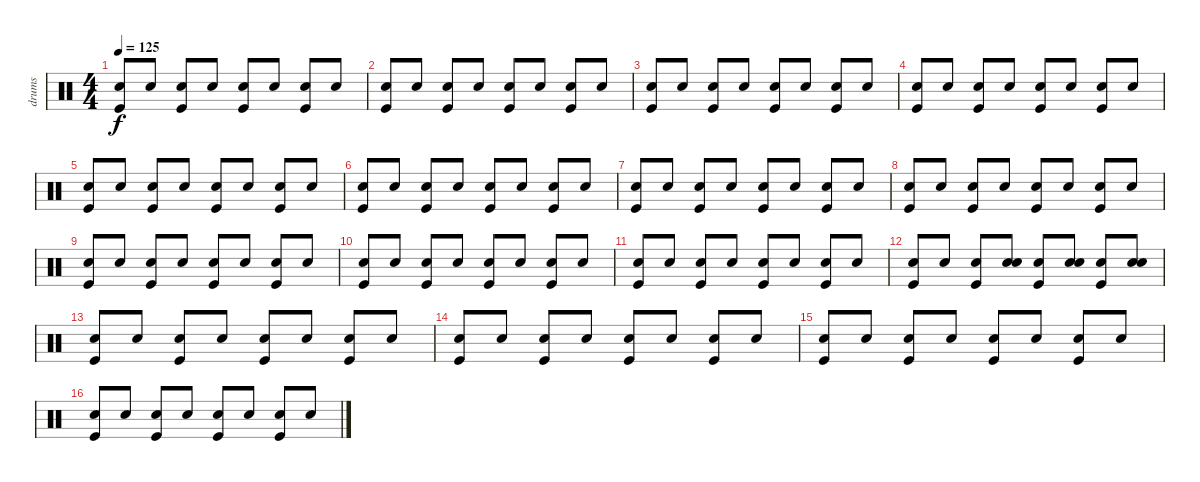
\track ("drums" "drums") {instrument percussion}
\staff {score}
\articulation defaults
\ts (4 4)
\tempo 125
\clef neutral
\ks c
("Kick (hit)" "Snare (hit) 2").8{dy f} "Snare (hit) 2".8 ("Hand Clap (hit)" "Kick (hit)").8 "Snare (hit) 2".8 ("Kick (hit)" "Snare (hit) 2").8 "Snare (hit) 2".8 ("Kick (hit)" "Hand Clap (hit)").8 "Snare (hit) 2".8 |
("Snare (hit) 2" "Kick (hit)").8 "Snare (hit) 2".8 ("Hand Clap (hit)" "Kick (hit)").8 "Snare (hit) 2".8 ("Snare (hit) 2" "Kick (hit)").8 "Snare (hit) 2".8 ("Hand Clap (hit)" "Kick (hit)").8 "Snare (hit) 2".8 |
("Kick (hit)" "Snare (hit) 2").8 "Snare (hit) 2".8 ("Kick (hit)" "Hand Clap (hit)").8 "Snare (hit) 2".8 ("Kick (hit)" "Snare (hit) 2").8 "Snare (hit) 2".8 ("Kick (hit)" "Hand Clap (hit)").8 "Snare (hit) 2".8 |
("Kick (hit)" "Snare (hit) 2").8 "Snare (hit) 2".8 ("Kick (hit)" "Hand Clap (hit)").8 "Snare (hit) 2".8 ("Kick (hit)" "Snare (hit) 2").8 "Snare (hit) 2".8 ("Kick (hit)" "Hand Clap (hit)").8 "Snare (hit) 2".8 |
("Kick (hit)" "Snare (hit) 2").8 "Snare (hit) 2".8 ("Kick (hit)" "Hand Clap (hit)").8 "Snare (hit) 2".8 ("Kick (hit)" "Snare (hit) 2").8 "Snare (hit) 2".8 ("Kick (hit)" "Hand Clap (hit)").8 "Snare (hit) 2".8 |
("Kick (hit)" "Snare (hit) 2").8 "Snare (hit) 2".8 ("Kick (hit)" "Hand Clap (hit)").8 "Snare (hit) 2".8 ("Kick (hit)" "Snare (hit) 2").8 "Snare (hit) 2".8 ("Kick (hit)" "Hand Clap (hit)").8 "Snare (hit) 2".8 |
("Kick (hit)" "Snare (hit) 2").8 "Snare (hit) 2".8 ("Kick (hit)" "Hand Clap (hit)").8 "Snare (hit) 2".8 ("Kick (hit)" "Snare (hit) 2").8 "Snare (hit) 2".8 ("Kick (hit)" "Hand Clap (hit)").8 "Snare (hit) 2".8 |
("Kick (hit)" "Snare (hit) 2").8 "Snare (hit) 2".8 ("Kick (hit)" "Hand Clap (hit)").8 "Snare (hit) 2".8 ("Kick (hit)" "Snare (hit) 2").8 "Snare (hit) 2".8 ("Kick (hit)" "Hand Clap (hit)").8 "Snare (hit) 2".8 |
("Kick (hit)" "Snare (hit) 2").8 "Snare (hit) 2".8 ("Kick (hit)" "Hand Clap (hit)").8 "Snare (hit) 2".8 ("Kick (hit)" "Snare (hit) 2").8 "Snare (hit) 2".8 ("Kick (hit)" "Hand Clap (hit)").8 "Snare (hit) 2".8 |
("Kick (hit)" "Snare (hit) 2").8 "Snare (hit) 2".8 ("Kick (hit)" "Hand Clap (hit)").8 "Snare (hit) 2".8 ("Kick (hit)" "Snare (hit) 2").8 "Snare (hit) 2".8 ("Kick (hit)" "Hand Clap (hit)").8 "Snare (hit) 2".8 |
("Kick (hit)" "Snare (hit) 2").8 "Snare (hit) 2".8 ("Kick (hit)" "Hand Clap (hit)").8 "Snare (hit) 2".8 ("Kick (hit)" "Snare (hit) 2").8 "Snare (hit) 2".8 ("Kick (hit)" "Hand Clap (hit)").8 "Snare (hit) 2".8 |
("Kick (hit)" "Snare (hit) 2").8 "Snare (hit) 2".8 ("Kick (hit)" "Snare (hit) 2").8 ("Snare (hit) 2" "Snare (hit) 2").8 ("Kick (hit)" "Snare (hit) 2").8 ("Snare (hit) 2" "Snare (hit) 2").8 ("Kick (hit)" "Snare (hit) 2").8 ("Snare (hit) 2" "Snare (hit) 2").8 |
("Kick (hit)" "Snare (hit) 2").8 "Snare (hit) 2".8 ("Hand Clap (hit)" "Kick (hit)").8 "Snare (hit) 2".8 ("Kick (hit)" "Snare (hit) 2").8 "Snare (hit) 2".8 ("Kick (hit)" "Hand Clap (hit)").8 "Snare (hit) 2".8 |
("Snare (hit) 2" "Kick (hit)").8 "Snare (hit) 2".8 ("Hand Clap (hit)" "Kick (hit)").8 "Snare (hit) 2".8 ("Snare (hit) 2" "Kick (hit)").8 "Snare (hit) 2".8 ("Hand Clap (hit)" "Kick (hit)").8 "Snare (hit) 2".8 |
("Kick (hit)" "Snare (hit) 2").8 "Snare (hit) 2".8 ("Kick (hit)" "Hand Clap (hit)").8 "Snare (hit) 2".8 ("Kick (hit)" "Snare (hit) 2").8 "Snare (hit) 2".8 ("Kick (hit)" "Hand Clap (hit)").8 "Snare (hit) 2".8 |
("Kick (hit)" "Snare (hit) 2").8 "Snare (hit) 2".8 ("Kick (hit)" "Hand Clap (hit)").8 "Snare (hit) 2".8 ("Kick (hit)" "Snare (hit) 2").8 "Snare (hit) 2".8 ("Kick (hit)" "Hand Clap (hit)").8 "Snare (hit) 2".8
